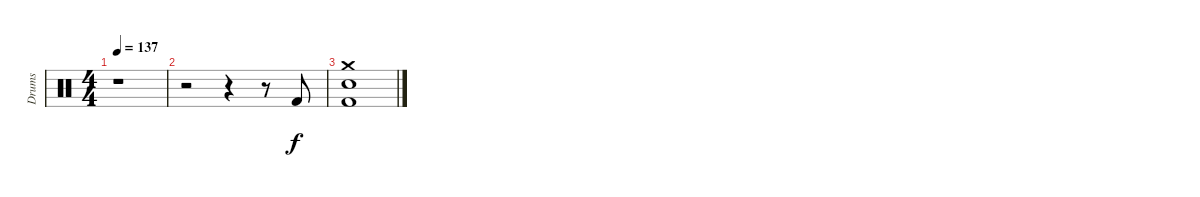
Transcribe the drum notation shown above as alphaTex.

\track ("Drums" "Drums") {instrument percussion}
\staff {score}
\articulation defaults
\ts (4 4)
\tempo 137
\clef neutral
\ks c
r.1{dy f} |
r.2 r.4 r.8 "Kick (hit) 2".8 |
("Snare (hit)" "Kick (hit) 2" "Crash medium (hit)").1
